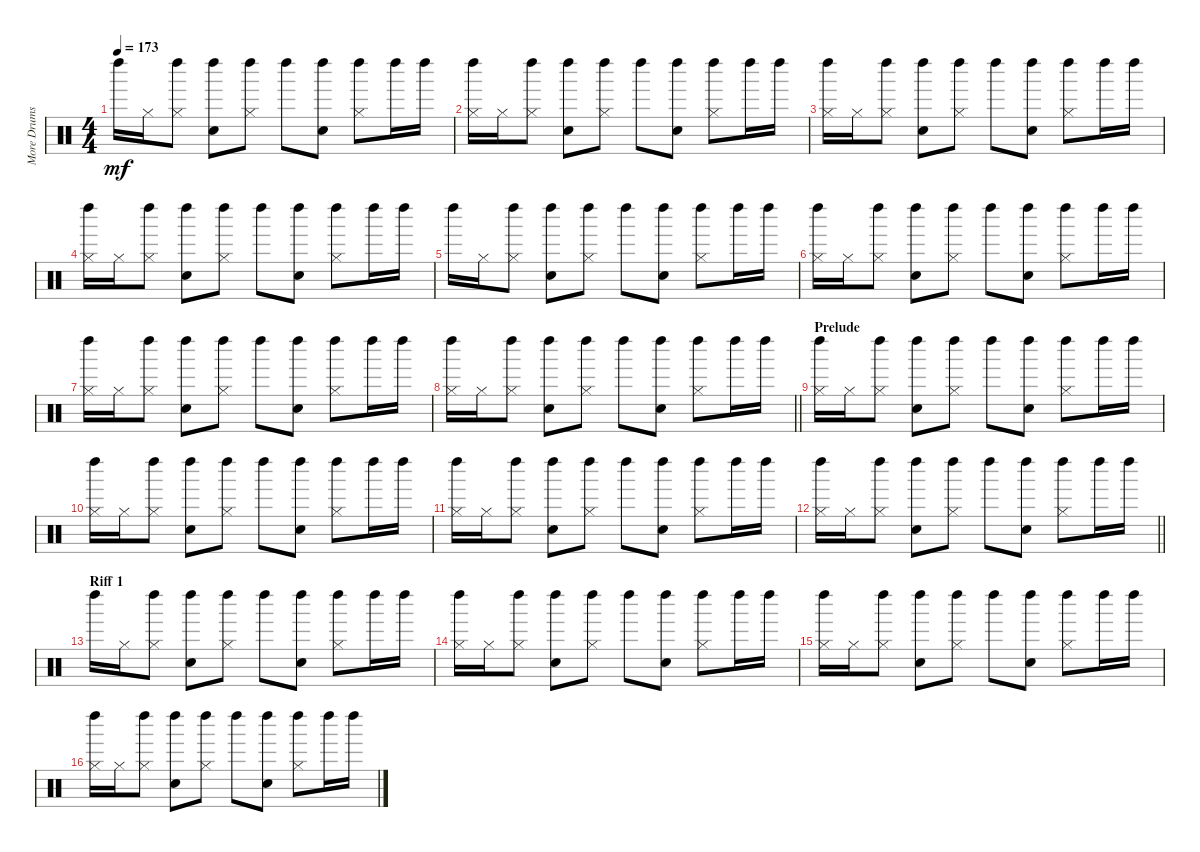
\track ("More Drums" "More Drums") {instrument percussion}
\staff {score}
\articulation defaults
\ts (4 4)
\tempo 173
\clef neutral
\ks c "Left Maraca (hit)".16{dy mf} "Hi-Hat (closed)".16
("Hi-Hat (closed)" "Left Maraca (hit)").8 ("Snare (hit) 2" "Left Maraca (hit)").8 ("Hi-Hat (closed)" "Left Maraca (hit)").8 "Left Maraca (hit)".8 ("Snare (hit) 2" "Left Maraca (hit)").8 ("Hi-Hat (closed)" "Left Maraca (hit)").8 "Left Maraca (hit)".16 "Left Maraca (hit)".16 |
("Hi-Hat (closed)" "Left Maraca (hit)").16 "Hi-Hat (closed)".16 ("Hi-Hat (closed)" "Left Maraca (hit)").8 ("Snare (hit) 2" "Left Maraca (hit)").8 ("Hi-Hat (closed)" "Left Maraca (hit)").8 "Left Maraca (hit)".8 ("Snare (hit) 2" "Left Maraca (hit)").8 ("Hi-Hat (closed)" "Left Maraca (hit)").8 "Left Maraca (hit)".16 "Left Maraca (hit)".16 |
("Hi-Hat (closed)" "Left Maraca (hit)").16 "Hi-Hat (closed)".16 ("Hi-Hat (closed)" "Left Maraca (hit)").8 ("Snare (hit) 2" "Left Maraca (hit)").8 ("Hi-Hat (closed)" "Left Maraca (hit)").8 "Left Maraca (hit)".8 ("Snare (hit) 2" "Left Maraca (hit)").8 ("Hi-Hat (closed)" "Left Maraca (hit)").8 "Left Maraca (hit)".16 "Left Maraca (hit)".16 |
("Hi-Hat (closed)" "Left Maraca (hit)").16 "Hi-Hat (closed)".16 ("Hi-Hat (closed)" "Left Maraca (hit)").8 ("Snare (hit) 2" "Left Maraca (hit)").8 ("Hi-Hat (closed)" "Left Maraca (hit)").8 "Left Maraca (hit)".8 ("Snare (hit) 2" "Left Maraca (hit)").8 ("Hi-Hat (closed)" "Left Maraca (hit)").8 "Left Maraca (hit)".16 "Left Maraca (hit)".16 |
"Left Maraca (hit)".16 "Hi-Hat (closed)".16 ("Hi-Hat (closed)" "Left Maraca (hit)").8 ("Snare (hit) 2" "Left Maraca (hit)").8 ("Hi-Hat (closed)" "Left Maraca (hit)").8 "Left Maraca (hit)".8 ("Snare (hit) 2" "Left Maraca (hit)").8 ("Hi-Hat (closed)" "Left Maraca (hit)").8 "Left Maraca (hit)".16 "Left Maraca (hit)".16 |
("Hi-Hat (closed)" "Left Maraca (hit)").16 "Hi-Hat (closed)".16 ("Hi-Hat (closed)" "Left Maraca (hit)").8 ("Snare (hit) 2" "Left Maraca (hit)").8 ("Hi-Hat (closed)" "Left Maraca (hit)").8 "Left Maraca (hit)".8 ("Snare (hit) 2" "Left Maraca (hit)").8 ("Hi-Hat (closed)" "Left Maraca (hit)").8 "Left Maraca (hit)".16 "Left Maraca (hit)".16 |
("Hi-Hat (closed)" "Left Maraca (hit)").16 "Hi-Hat (closed)".16 ("Hi-Hat (closed)" "Left Maraca (hit)").8 ("Snare (hit) 2" "Left Maraca (hit)").8 ("Hi-Hat (closed)" "Left Maraca (hit)").8 "Left Maraca (hit)".8 ("Snare (hit) 2" "Left Maraca (hit)").8 ("Hi-Hat (closed)" "Left Maraca (hit)").8 "Left Maraca (hit)".16 "Left Maraca (hit)".16 |
\barLineRight lightlight
("Hi-Hat (closed)" "Left Maraca (hit)").16 "Hi-Hat (closed)".16 ("Hi-Hat (closed)" "Left Maraca (hit)").8 ("Snare (hit) 2" "Left Maraca (hit)").8 ("Hi-Hat (closed)" "Left Maraca (hit)").8 "Left Maraca (hit)".8 ("Snare (hit) 2" "Left Maraca (hit)").8 ("Hi-Hat (closed)" "Left Maraca (hit)").8 "Left Maraca (hit)".16 "Left Maraca (hit)".16 |
\section ("" "Prelude")
("Hi-Hat (closed)" "Left Maraca (hit)").16 "Hi-Hat (closed)".16 ("Hi-Hat (closed)" "Left Maraca (hit)").8 ("Snare (hit) 2" "Left Maraca (hit)").8 ("Hi-Hat (closed)" "Left Maraca (hit)").8 "Left Maraca (hit)".8 ("Snare (hit) 2" "Left Maraca (hit)").8 ("Hi-Hat (closed)" "Left Maraca (hit)").8 "Left Maraca (hit)".16 "Left Maraca (hit)".16 |
("Hi-Hat (closed)" "Left Maraca (hit)").16 "Hi-Hat (closed)".16 ("Hi-Hat (closed)" "Left Maraca (hit)").8 ("Snare (hit) 2" "Left Maraca (hit)").8 ("Hi-Hat (closed)" "Left Maraca (hit)").8 "Left Maraca (hit)".8 ("Snare (hit) 2" "Left Maraca (hit)").8 ("Hi-Hat (closed)" "Left Maraca (hit)").8 "Left Maraca (hit)".16 "Left Maraca (hit)".16 |
("Hi-Hat (closed)" "Left Maraca (hit)").16 "Hi-Hat (closed)".16 ("Hi-Hat (closed)" "Left Maraca (hit)").8 ("Snare (hit) 2" "Left Maraca (hit)").8 ("Hi-Hat (closed)" "Left Maraca (hit)").8 "Left Maraca (hit)".8 ("Snare (hit) 2" "Left Maraca (hit)").8 ("Hi-Hat (closed)" "Left Maraca (hit)").8 "Left Maraca (hit)".16 "Left Maraca (hit)".16 |
\barLineRight lightlight
("Hi-Hat (closed)" "Left Maraca (hit)").16 "Hi-Hat (closed)".16 ("Hi-Hat (closed)" "Left Maraca (hit)").8 ("Snare (hit) 2" "Left Maraca (hit)").8 ("Hi-Hat (closed)" "Left Maraca (hit)").8 "Left Maraca (hit)".8 ("Snare (hit) 2" "Left Maraca (hit)").8 ("Hi-Hat (closed)" "Left Maraca (hit)").8 "Left Maraca (hit)".16 "Left Maraca (hit)".16 |
\section ("" "Riff 1")
"Left Maraca (hit)".16 "Hi-Hat (closed)".16 ("Hi-Hat (closed)" "Left Maraca (hit)").8 ("Snare (hit) 2" "Left Maraca (hit)").8 ("Hi-Hat (closed)" "Left Maraca (hit)").8 "Left Maraca (hit)".8 ("Snare (hit) 2" "Left Maraca (hit)").8 ("Hi-Hat (closed)" "Left Maraca (hit)").8 "Left Maraca (hit)".16 "Left Maraca (hit)".16 |
("Hi-Hat (closed)" "Left Maraca (hit)").16 "Hi-Hat (closed)".16 ("Hi-Hat (closed)" "Left Maraca (hit)").8 ("Snare (hit) 2" "Left Maraca (hit)").8 ("Hi-Hat (closed)" "Left Maraca (hit)").8 "Left Maraca (hit)".8 ("Snare (hit) 2" "Left Maraca (hit)").8 ("Hi-Hat (closed)" "Left Maraca (hit)").8 "Left Maraca (hit)".16 "Left Maraca (hit)".16 |
("Hi-Hat (closed)" "Left Maraca (hit)").16 "Hi-Hat (closed)".16 ("Hi-Hat (closed)" "Left Maraca (hit)").8 ("Snare (hit) 2" "Left Maraca (hit)").8 ("Hi-Hat (closed)" "Left Maraca (hit)").8 "Left Maraca (hit)".8 ("Snare (hit) 2" "Left Maraca (hit)").8 ("Hi-Hat (closed)" "Left Maraca (hit)").8 "Left Maraca (hit)".16 "Left Maraca (hit)".16 |
("Hi-Hat (closed)" "Left Maraca (hit)").16 "Hi-Hat (closed)".16 ("Hi-Hat (closed)" "Left Maraca (hit)").8 ("Snare (hit) 2" "Left Maraca (hit)").8 ("Hi-Hat (closed)" "Left Maraca (hit)").8 "Left Maraca (hit)".8 ("Snare (hit) 2" "Left Maraca (hit)").8 ("Hi-Hat (closed)" "Left Maraca (hit)").8 "Left Maraca (hit)".16 "Left Maraca (hit)".16
